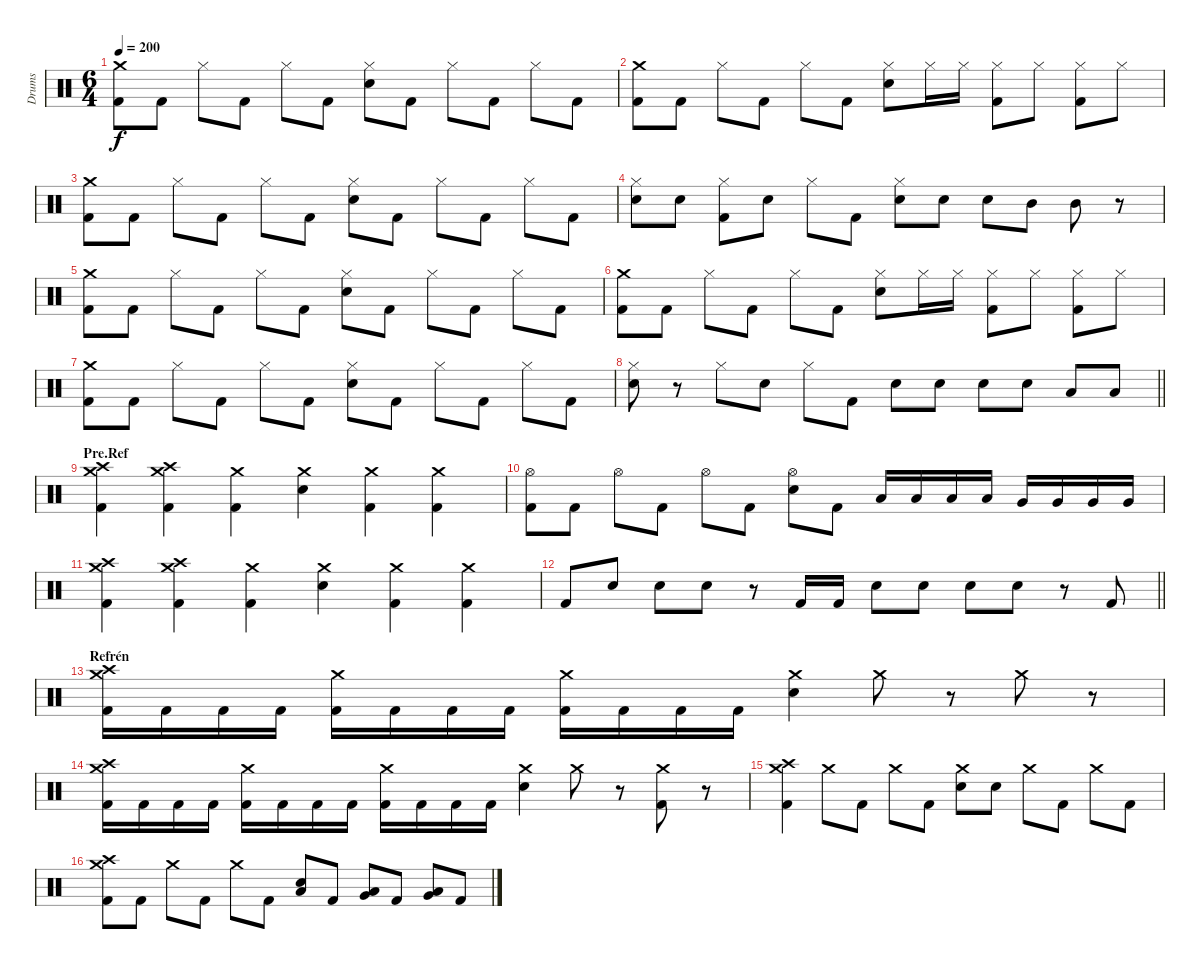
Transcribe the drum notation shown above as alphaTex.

\track ("Drums" "Drums") {instrument percussion}
\staff {score}
\articulation defaults
\ts (6 4)
\tempo 200
\clef neutral
\ks c
("Crash medium (hit)" "Kick (hit) 2").8{dy f} "Kick (hit) 2".8 "Hi-Hat (closed)".8 "Kick (hit) 2".8 "Hi-Hat (closed)".8 "Kick (hit) 2".8 ("Hi-Hat (closed)" "Electric Snare (hit)").8 "Kick (hit) 2".8 "Hi-Hat (closed)".8 "Kick (hit) 2".8 "Hi-Hat (closed)".8 "Kick (hit) 2".8 |
("Crash medium (hit)" "Kick (hit) 2").8 "Kick (hit) 2".8 "Hi-Hat (closed)".8 "Kick (hit) 2".8 "Hi-Hat (closed)".8 "Kick (hit) 2".8 ("Hi-Hat (closed)" "Electric Snare (hit)").8 "Hi-Hat (closed)".16 "Hi-Hat (closed)".16 ("Hi-Hat (closed)" "Kick (hit) 2").8 "Hi-Hat (closed)".8 ("Hi-Hat (closed)" "Kick (hit) 2").8 "Hi-Hat (closed)".8 |
("Crash medium (hit)" "Kick (hit) 2").8 "Kick (hit) 2".8 "Hi-Hat (closed)".8 "Kick (hit) 2".8 "Hi-Hat (closed)".8 "Kick (hit) 2".8 ("Hi-Hat (closed)" "Electric Snare (hit)").8 "Kick (hit) 2".8 "Hi-Hat (closed)".8 "Kick (hit) 2".8 "Hi-Hat (closed)".8 "Kick (hit) 2".8 |
("Hi-Hat (closed)" "Electric Snare (hit)").8 "Electric Snare (hit)".8 ("Hi-Hat (closed)" "Kick (hit) 2").8 "Electric Snare (hit)".8 "Hi-Hat (closed)".8 "Kick (hit) 2".8 ("Hi-Hat (closed)" "Electric Snare (hit)").8 "Electric Snare (hit)".8 "Electric Snare (hit)".8 "Mid Tom (hit)".8 "Mid Tom (hit)".8 r.8 |
("Crash medium (hit)" "Kick (hit) 2").8 "Kick (hit) 2".8 "Hi-Hat (closed)".8 "Kick (hit) 2".8 "Hi-Hat (closed)".8 "Kick (hit) 2".8 ("Hi-Hat (closed)" "Electric Snare (hit)").8 "Kick (hit) 2".8 "Hi-Hat (closed)".8 "Kick (hit) 2".8 "Hi-Hat (closed)".8 "Kick (hit) 2".8 |
("Crash medium (hit)" "Kick (hit) 2").8 "Kick (hit) 2".8 "Hi-Hat (closed)".8 "Kick (hit) 2".8 "Hi-Hat (closed)".8 "Kick (hit) 2".8 ("Hi-Hat (closed)" "Electric Snare (hit)").8 "Hi-Hat (closed)".16 "Hi-Hat (closed)".16 ("Hi-Hat (closed)" "Kick (hit) 2").8 "Hi-Hat (closed)".8 ("Hi-Hat (closed)" "Kick (hit) 2").8 "Hi-Hat (closed)".8 |
("Crash medium (hit)" "Kick (hit) 2").8 "Kick (hit) 2".8 "Hi-Hat (closed)".8 "Kick (hit) 2".8 "Hi-Hat (closed)".8 "Kick (hit) 2".8 ("Hi-Hat (closed)" "Electric Snare (hit)").8 "Kick (hit) 2".8 "Hi-Hat (closed)".8 "Kick (hit) 2".8 "Hi-Hat (closed)".8 "Kick (hit) 2".8 |
\barLineRight lightlight
("Hi-Hat (closed)" "Electric Snare (hit)").8 r.8 "Hi-Hat (closed)".8 "Electric Snare (hit)".8 "Hi-Hat (closed)".8 "Kick (hit) 2".8 "Electric Snare (hit)".8 "Electric Snare (hit)".8 "Electric Snare (hit)".8 "Electric Snare (hit)".8 "Low Tom (hit)".8 "Low Tom (hit)".8 |
\section ("" "Pre.Ref")
("Crash medium (hit)" "Crash high (hit)" "Kick (hit) 2").4 ("Crash medium (hit)" "Crash high (hit)" "Kick (hit) 2").4 ("Crash medium (hit)" "Kick (hit) 2").4 ("Crash medium (hit)" "Electric Snare (hit)").4 ("Crash medium (hit)" "Kick (hit) 2").4 ("Crash medium (hit)" "Kick (hit) 2").4 |
("Hi-Hat (open)" "Kick (hit) 2").8 "Kick (hit) 2".8 "Hi-Hat (open)".8 "Kick (hit) 2".8 "Hi-Hat (open)".8 "Kick (hit) 2".8 ("Hi-Hat (open)" "Electric Snare (hit)").8 "Kick (hit) 2".8 "Low Tom (hit)".16 "Low Tom (hit)".16 "Low Tom (hit)".16 "Low Tom (hit)".16 "Very Low Tom (hit)".16 "Very Low Tom (hit)".16 "Very Low Tom (hit)".16 "Very Low Tom (hit)".16 |
("Crash medium (hit)" "Crash high (hit)" "Kick (hit) 2").4 ("Crash medium (hit)" "Crash high (hit)" "Kick (hit) 2").4 ("Crash medium (hit)" "Kick (hit) 2").4 ("Crash medium (hit)" "Electric Snare (hit)").4 ("Crash medium (hit)" "Kick (hit) 2").4 ("Crash medium (hit)" "Kick (hit) 2").4 |
\barLineRight lightlight "Kick (hit) 2".8 "Electric Snare (hit)".8 "Electric Snare (hit)".8 "Electric Snare (hit)".8
r.8 "Kick (hit) 2".16 "Kick (hit) 2".16 "Electric Snare (hit)".8 "Electric Snare (hit)".8 "Electric Snare (hit)".8 "Electric Snare (hit)".8 r.8 "Kick (hit) 2".8 |
\section ("" "Refrén")
("Crash medium (hit)" "Crash high (hit)" "Kick (hit) 2").16 "Kick (hit) 2".16 "Kick (hit) 2".16 "Kick (hit) 2".16 ("Crash medium (hit)" "Kick (hit) 2").16 "Kick (hit) 2".16 "Kick (hit) 2".16 "Kick (hit) 2".16 ("Crash medium (hit)" "Kick (hit) 2").16 "Kick (hit) 2".16 "Kick (hit) 2".16 "Kick (hit) 2".16 ("Crash medium (hit)" "Electric Snare (hit)").4 "Crash medium (hit)".8 r.8 "Crash medium (hit)".8 r.8 |
("Crash medium (hit)" "Crash high (hit)" "Kick (hit) 2").16 "Kick (hit) 2".16 "Kick (hit) 2".16 "Kick (hit) 2".16 ("Crash medium (hit)" "Kick (hit) 2").16 "Kick (hit) 2".16 "Kick (hit) 2".16 "Kick (hit) 2".16 ("Crash medium (hit)" "Kick (hit) 2").16 "Kick (hit) 2".16 "Kick (hit) 2".16 "Kick (hit) 2".16 ("Crash medium (hit)" "Electric Snare (hit)").4 "Crash medium (hit)".8 r.8 ("Crash medium (hit)" "Kick (hit) 2").8 r.8 |
("Crash medium (hit)" "Crash high (hit)" "Kick (hit) 2").4 "Crash medium (hit)".8 "Kick (hit) 2".8 "Crash medium (hit)".8 "Kick (hit) 2".8 ("Crash medium (hit)" "Electric Snare (hit)").8 "Electric Snare (hit)".8 "Crash medium (hit)".8 "Kick (hit) 2".8 "Crash medium (hit)".8 "Kick (hit) 2".8 |
("Crash medium (hit)" "Crash high (hit)" "Kick (hit) 2").8 "Kick (hit) 2".8 "Crash medium (hit)".8 "Kick (hit) 2".8 "Crash medium (hit)".8 "Kick (hit) 2".8 ("Low Floor Tom (hit)" "Electric Snare (hit)").8 "Kick (hit) 2".8 ("Low Tom (hit)" "Very Low Tom (hit)").8 "Kick (hit) 2".8 ("Very Low Tom (hit)" "Low Floor Tom (hit)").8 "Kick (hit) 2".8
